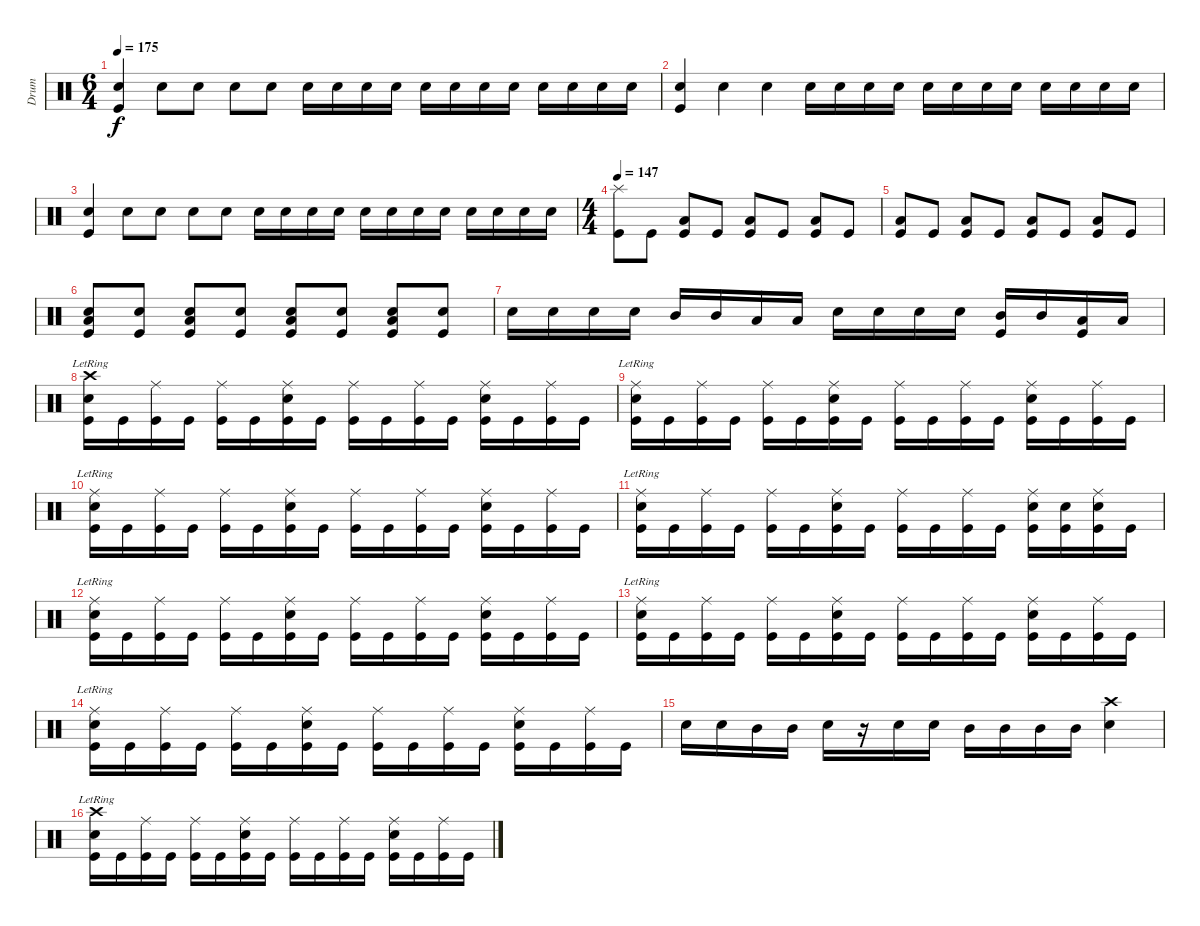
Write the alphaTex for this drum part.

\track ("Drum" "Drum") {instrument percussion}
\staff {score}
\articulation defaults
\ts (6 4)
\tempo 175
\clef neutral
\ks c
("Snare (hit) 2" "Kick (hit)").4{dy f} "Snare (hit) 2".8 "Snare (hit) 2".8 "Snare (hit) 2".8 "Snare (hit) 2".8 "Snare (hit) 2".16 "Snare (hit) 2".16 "Snare (hit) 2".16 "Snare (hit) 2".16 "Snare (hit) 2".16 "Snare (hit) 2".16 "Snare (hit) 2".16 "Snare (hit) 2".16 "Snare (hit) 2".16 "Snare (hit) 2".16 "Snare (hit) 2".16 "Snare (hit) 2".16 |
("Snare (hit) 2" "Kick (hit)").4 "Snare (hit) 2".4 "Snare (hit) 2".4 "Snare (hit) 2".16 "Snare (hit) 2".16 "Snare (hit) 2".16 "Snare (hit) 2".16 "Snare (hit) 2".16 "Snare (hit) 2".16 "Snare (hit) 2".16 "Snare (hit) 2".16 "Snare (hit) 2".16 "Snare (hit) 2".16 "Snare (hit) 2".16 "Snare (hit) 2".16 |
("Snare (hit) 2" "Kick (hit)").4 "Snare (hit) 2".8 "Snare (hit) 2".8 "Snare (hit) 2".8 "Snare (hit) 2".8 "Snare (hit) 2".16 "Snare (hit) 2".16 "Snare (hit) 2".16 "Snare (hit) 2".16 "Snare (hit) 2".16 "Snare (hit) 2".16 "Snare (hit) 2".16 "Snare (hit) 2".16 "Snare (hit) 2".16 "Snare (hit) 2".16 "Snare (hit) 2".16 "Snare (hit) 2".16 |
\ts (4 4)
\tempo 147
("Splash (hit)" "Kick (hit)").8{volume 13} "Kick (hit)".8 ("Low Floor Tom (hit)" "Kick (hit)").8 "Kick (hit)".8 ("Low Floor Tom (hit)" "Kick (hit)").8 "Kick (hit)".8 ("Low Floor Tom (hit)" "Kick (hit)").8 "Kick (hit)".8 |
("Low Floor Tom (hit)" "Kick (hit)").8 "Kick (hit)".8 ("Low Floor Tom (hit)" "Kick (hit)").8 "Kick (hit)".8 ("Low Floor Tom (hit)" "Kick (hit)").8 "Kick (hit)".8 ("Low Floor Tom (hit)" "Kick (hit)").8 "Kick (hit)".8 |
("Snare (hit) 2" "Low Floor Tom (hit)" "Kick (hit)").8 ("Snare (hit) 2" "Kick (hit)").8 ("Snare (hit) 2" "Low Floor Tom (hit)" "Kick (hit)").8 ("Snare (hit) 2" "Kick (hit)").8 ("Snare (hit) 2" "Low Floor Tom (hit)" "Kick (hit)").8 ("Snare (hit) 2" "Kick (hit)").8 ("Snare (hit) 2" "Low Floor Tom (hit)" "Kick (hit)").8 ("Snare (hit) 2" "Kick (hit)").8 |
"Snare (hit) 2".16 "Snare (hit) 2".16 "Snare (hit) 2".16 "Snare (hit) 2".16 "Mid Tom (hit)".16 "Mid Tom (hit)".16 "Low Tom (hit)".16 "Low Tom (hit)".16 "Snare (hit) 2".16 "Snare (hit) 2".16 "Snare (hit) 2".16 "Snare (hit) 2".16 ("Mid Tom (hit)" "Kick (hit)").16 "Mid Tom (hit)".16 ("Low Tom (hit)" "Kick (hit)").16 "Low Tom (hit)".16 |
("Crash high (hit)"{lr} "Snare (hit) 2" "Kick (hit)").16 "Kick (hit)".16 ("Ride (middle)" "Kick (hit)").16 "Kick (hit)".16 ("Ride (middle)" "Kick (hit)").16 "Kick (hit)".16 ("Ride (middle)" "Snare (hit) 2" "Kick (hit)").16 "Kick (hit)".16 ("Ride (middle)" "Kick (hit)").16 "Kick (hit)".16 ("Ride (middle)" "Kick (hit)").16 "Kick (hit)".16 ("Ride (middle)" "Snare (hit) 2" "Kick (hit)").16 "Kick (hit)".16 ("Ride (middle)" "Kick (hit)").16 "Kick (hit)".16 |
("Ride (middle)"{lr} "Snare (hit) 2" "Kick (hit)").16 "Kick (hit)".16 ("Ride (middle)" "Kick (hit)").16 "Kick (hit)".16 ("Ride (middle)" "Kick (hit)").16 "Kick (hit)".16 ("Ride (middle)" "Snare (hit) 2" "Kick (hit)").16 "Kick (hit)".16 ("Ride (middle)" "Kick (hit)").16 "Kick (hit)".16 ("Ride (middle)" "Kick (hit)").16 "Kick (hit)".16 ("Ride (middle)" "Snare (hit) 2" "Kick (hit)").16 "Kick (hit)".16 ("Ride (middle)" "Kick (hit)").16 "Kick (hit)".16 |
("Ride (middle)"{lr} "Snare (hit) 2" "Kick (hit)").16 "Kick (hit)".16 ("Ride (middle)" "Kick (hit)").16 "Kick (hit)".16 ("Ride (middle)" "Kick (hit)").16 "Kick (hit)".16 ("Ride (middle)" "Snare (hit) 2" "Kick (hit)").16 "Kick (hit)".16 ("Ride (middle)" "Kick (hit)").16 "Kick (hit)".16 ("Ride (middle)" "Kick (hit)").16 "Kick (hit)".16 ("Ride (middle)" "Snare (hit) 2" "Kick (hit)").16 "Kick (hit)".16 ("Ride (middle)" "Kick (hit)").16 "Kick (hit)".16 |
("Ride (middle)"{lr} "Snare (hit) 2" "Kick (hit)").16 "Kick (hit)".16 ("Ride (middle)" "Kick (hit)").16 "Kick (hit)".16 ("Ride (middle)" "Kick (hit)").16 "Kick (hit)".16 ("Ride (middle)" "Snare (hit) 2" "Kick (hit)").16 "Kick (hit)".16 ("Ride (middle)" "Kick (hit)").16 "Kick (hit)".16 ("Ride (middle)" "Kick (hit)").16 "Kick (hit)".16 ("Ride (middle)" "Snare (hit) 2" "Kick (hit)").16 ("Snare (hit) 2" "Kick (hit)").16 ("Ride (middle)" "Snare (hit) 2" "Kick (hit)").16 "Kick (hit)".16 |
("Ride (middle)"{lr} "Snare (hit) 2" "Kick (hit)").16 "Kick (hit)".16 ("Ride (middle)" "Kick (hit)").16 "Kick (hit)".16 ("Ride (middle)" "Kick (hit)").16 "Kick (hit)".16 ("Ride (middle)" "Snare (hit) 2" "Kick (hit)").16 "Kick (hit)".16 ("Ride (middle)" "Kick (hit)").16 "Kick (hit)".16 ("Ride (middle)" "Kick (hit)").16 "Kick (hit)".16 ("Ride (middle)" "Snare (hit) 2" "Kick (hit)").16 "Kick (hit)".16 ("Ride (middle)" "Kick (hit)").16 "Kick (hit)".16 |
("Ride (middle)"{lr} "Snare (hit) 2" "Kick (hit)").16 "Kick (hit)".16 ("Ride (middle)" "Kick (hit)").16 "Kick (hit)".16 ("Ride (middle)" "Kick (hit)").16 "Kick (hit)".16 ("Ride (middle)" "Snare (hit) 2" "Kick (hit)").16 "Kick (hit)".16 ("Ride (middle)" "Kick (hit)").16 "Kick (hit)".16 ("Ride (middle)" "Kick (hit)").16 "Kick (hit)".16 ("Ride (middle)" "Snare (hit) 2" "Kick (hit)").16 "Kick (hit)".16 ("Ride (middle)" "Kick (hit)").16 "Kick (hit)".16 |
("Ride (middle)"{lr} "Snare (hit) 2" "Kick (hit)").16 "Kick (hit)".16 ("Ride (middle)" "Kick (hit)").16 "Kick (hit)".16 ("Ride (middle)" "Kick (hit)").16 "Kick (hit)".16 ("Ride (middle)" "Snare (hit) 2" "Kick (hit)").16 "Kick (hit)".16 ("Ride (middle)" "Kick (hit)").16 "Kick (hit)".16 ("Ride (middle)" "Kick (hit)").16 "Kick (hit)".16 ("Ride (middle)" "Snare (hit) 2" "Kick (hit)").16 "Kick (hit)".16 ("Ride (middle)" "Kick (hit)").16 "Kick (hit)".16 |
"Snare (hit) 2".16 "Snare (hit) 2".16 "Mid Tom (hit)".16 "Mid Tom (hit)".16 "Snare (hit) 2".16 r.16 "Snare (hit) 2".16 "Snare (hit) 2".16 "Mid Tom (hit)".16 "Mid Tom (hit)".16 "Mid Tom (hit)".16 "Mid Tom (hit)".16 ("Crash high (hit)" "Snare (hit) 2").4 |
("Crash high (hit)"{lr} "Snare (hit) 2" "Kick (hit)").16 "Kick (hit)".16 ("Ride (middle)" "Kick (hit)").16 "Kick (hit)".16 ("Ride (middle)" "Kick (hit)").16 "Kick (hit)".16 ("Ride (middle)" "Snare (hit) 2" "Kick (hit)").16 "Kick (hit)".16 ("Ride (middle)" "Kick (hit)").16 "Kick (hit)".16 ("Ride (middle)" "Kick (hit)").16 "Kick (hit)".16 ("Ride (middle)" "Snare (hit) 2" "Kick (hit)").16 "Kick (hit)".16 ("Ride (middle)" "Kick (hit)").16 "Kick (hit)".16
